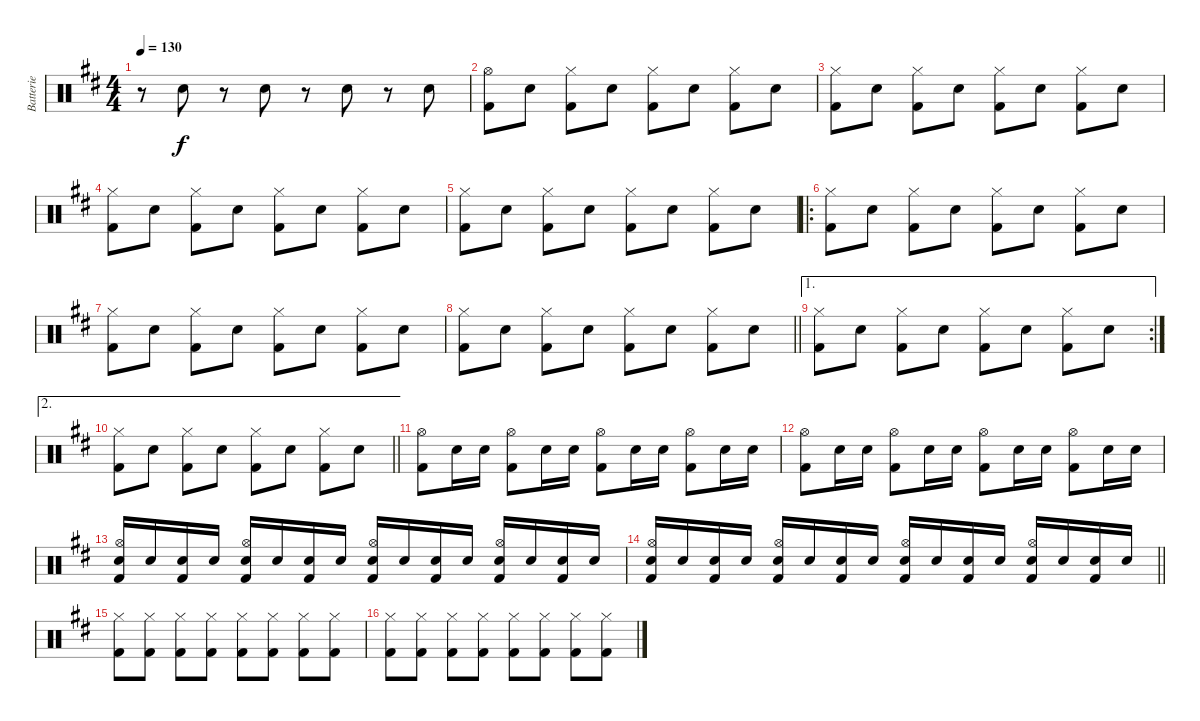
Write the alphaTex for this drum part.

\track ("Batterie" "Batterie") {instrument percussion}
\staff {score}
\articulation defaults
\ts (4 4)
\tempo 130
\clef neutral
\ks d
r.8{dy f} "Snare (hit) 2".8 r.8 "Snare (hit) 2".8 r.8 "Snare (hit) 2".8 r.8 "Snare (hit) 2".8 |
("Hi-Hat (open)" "Kick (hit) 2").8 "Snare (hit) 2".8 ("Hi-Hat (closed)" "Kick (hit) 2").8 "Snare (hit) 2".8 ("Hi-Hat (closed)" "Kick (hit) 2").8 "Snare (hit) 2".8 ("Hi-Hat (closed)" "Kick (hit) 2").8 "Snare (hit) 2".8 |
("Hi-Hat (closed)" "Kick (hit) 2").8 "Snare (hit) 2".8 ("Hi-Hat (closed)" "Kick (hit) 2").8 "Snare (hit) 2".8 ("Hi-Hat (closed)" "Kick (hit) 2").8 "Snare (hit) 2".8 ("Hi-Hat (closed)" "Kick (hit) 2").8 "Snare (hit) 2".8 |
("Hi-Hat (closed)" "Kick (hit) 2").8 "Snare (hit) 2".8 ("Hi-Hat (closed)" "Kick (hit) 2").8 "Snare (hit) 2".8 ("Hi-Hat (closed)" "Kick (hit) 2").8 "Snare (hit) 2".8 ("Hi-Hat (closed)" "Kick (hit) 2").8 "Snare (hit) 2".8 |
("Hi-Hat (closed)" "Kick (hit) 2").8 "Snare (hit) 2".8 ("Hi-Hat (closed)" "Kick (hit) 2").8 "Snare (hit) 2".8 ("Hi-Hat (closed)" "Kick (hit) 2").8 "Snare (hit) 2".8 ("Hi-Hat (closed)" "Kick (hit) 2").8 "Snare (hit) 2".8 |
\ro
("Hi-Hat (closed)" "Kick (hit) 2").8 "Snare (hit) 2".8 ("Hi-Hat (closed)" "Kick (hit) 2").8 "Snare (hit) 2".8 ("Hi-Hat (closed)" "Kick (hit) 2").8 "Snare (hit) 2".8 ("Hi-Hat (closed)" "Kick (hit) 2").8 "Snare (hit) 2".8 |
("Hi-Hat (closed)" "Kick (hit) 2").8 "Snare (hit) 2".8 ("Hi-Hat (closed)" "Kick (hit) 2").8 "Snare (hit) 2".8 ("Hi-Hat (closed)" "Kick (hit) 2").8 "Snare (hit) 2".8 ("Hi-Hat (closed)" "Kick (hit) 2").8 "Snare (hit) 2".8 |
\barLineRight lightlight
("Hi-Hat (closed)" "Kick (hit) 2").8 "Snare (hit) 2".8 ("Hi-Hat (closed)" "Kick (hit) 2").8 "Snare (hit) 2".8 ("Hi-Hat (closed)" "Kick (hit) 2").8 "Snare (hit) 2".8 ("Hi-Hat (closed)" "Kick (hit) 2").8 "Snare (hit) 2".8 |
\ae 1
\rc 2
("Hi-Hat (closed)" "Kick (hit) 2").8 "Snare (hit) 2".8 ("Hi-Hat (closed)" "Kick (hit) 2").8 "Snare (hit) 2".8 ("Hi-Hat (closed)" "Kick (hit) 2").8 "Snare (hit) 2".8 ("Hi-Hat (closed)" "Kick (hit) 2").8 "Snare (hit) 2".8 |
\ae 2
\barLineRight lightlight
("Hi-Hat (closed)" "Kick (hit) 2").8 "Snare (hit) 2".8 ("Hi-Hat (closed)" "Kick (hit) 2").8 "Snare (hit) 2".8 ("Hi-Hat (closed)" "Kick (hit) 2").8 "Snare (hit) 2".8 ("Hi-Hat (closed)" "Kick (hit) 2").8 "Snare (hit) 2".8 |
("Hi-Hat (open)" "Kick (hit) 2").8 "Snare (hit) 2".16 "Snare (hit) 2".16 ("Hi-Hat (open)" "Kick (hit) 2").8 "Snare (hit) 2".16 "Snare (hit) 2".16 ("Hi-Hat (open)" "Kick (hit) 2").8 "Snare (hit) 2".16 "Snare (hit) 2".16 ("Hi-Hat (open)" "Kick (hit) 2").8 "Snare (hit) 2".16 "Snare (hit) 2".16 |
("Hi-Hat (open)" "Kick (hit) 2").8 "Snare (hit) 2".16 "Snare (hit) 2".16 ("Hi-Hat (open)" "Kick (hit) 2").8 "Snare (hit) 2".16 "Snare (hit) 2".16 ("Hi-Hat (open)" "Kick (hit) 2").8 "Snare (hit) 2".16 "Snare (hit) 2".16 ("Hi-Hat (open)" "Kick (hit) 2").8 "Snare (hit) 2".16 "Snare (hit) 2".16 |
("Hi-Hat (open)" "Snare (hit) 2" "Kick (hit) 2").16 "Snare (hit) 2".16 ("Snare (hit) 2" "Kick (hit) 2").16 "Snare (hit) 2".16 ("Hi-Hat (open)" "Snare (hit) 2" "Kick (hit) 2").16 "Snare (hit) 2".16 ("Snare (hit) 2" "Kick (hit) 2").16 "Snare (hit) 2".16 ("Hi-Hat (open)" "Snare (hit) 2" "Kick (hit) 2").16 "Snare (hit) 2".16 ("Snare (hit) 2" "Kick (hit) 2").16 "Snare (hit) 2".16 ("Hi-Hat (open)" "Snare (hit) 2" "Kick (hit) 2").16 "Snare (hit) 2".16 ("Snare (hit) 2" "Kick (hit) 2").16 "Snare (hit) 2".16 |
\barLineRight lightlight
("Hi-Hat (open)" "Snare (hit) 2" "Kick (hit) 2").16 "Snare (hit) 2".16 ("Snare (hit) 2" "Kick (hit) 2").16 "Snare (hit) 2".16 ("Hi-Hat (open)" "Snare (hit) 2" "Kick (hit) 2").16 "Snare (hit) 2".16 ("Snare (hit) 2" "Kick (hit) 2").16 "Snare (hit) 2".16 ("Hi-Hat (open)" "Snare (hit) 2" "Kick (hit) 2").16 "Snare (hit) 2".16 ("Snare (hit) 2" "Kick (hit) 2").16 "Snare (hit) 2".16 ("Hi-Hat (open)" "Snare (hit) 2" "Kick (hit) 2").16 "Snare (hit) 2".16 ("Snare (hit) 2" "Kick (hit) 2").16 "Snare (hit) 2".16 |
("Hi-Hat (closed)" "Kick (hit) 2").8 ("Hi-Hat (closed)" "Kick (hit) 2").8 ("Hi-Hat (closed)" "Kick (hit) 2").8 ("Hi-Hat (closed)" "Kick (hit) 2").8 ("Hi-Hat (closed)" "Kick (hit) 2").8 ("Hi-Hat (closed)" "Kick (hit) 2").8 ("Hi-Hat (closed)" "Kick (hit) 2").8 ("Hi-Hat (closed)" "Kick (hit) 2").8 |
("Hi-Hat (closed)" "Kick (hit) 2").8 ("Hi-Hat (closed)" "Kick (hit) 2").8 ("Hi-Hat (closed)" "Kick (hit) 2").8 ("Hi-Hat (closed)" "Kick (hit) 2").8 ("Hi-Hat (closed)" "Kick (hit) 2").8 ("Hi-Hat (closed)" "Kick (hit) 2").8 ("Hi-Hat (closed)" "Kick (hit) 2").8 ("Hi-Hat (closed)" "Kick (hit) 2").8
